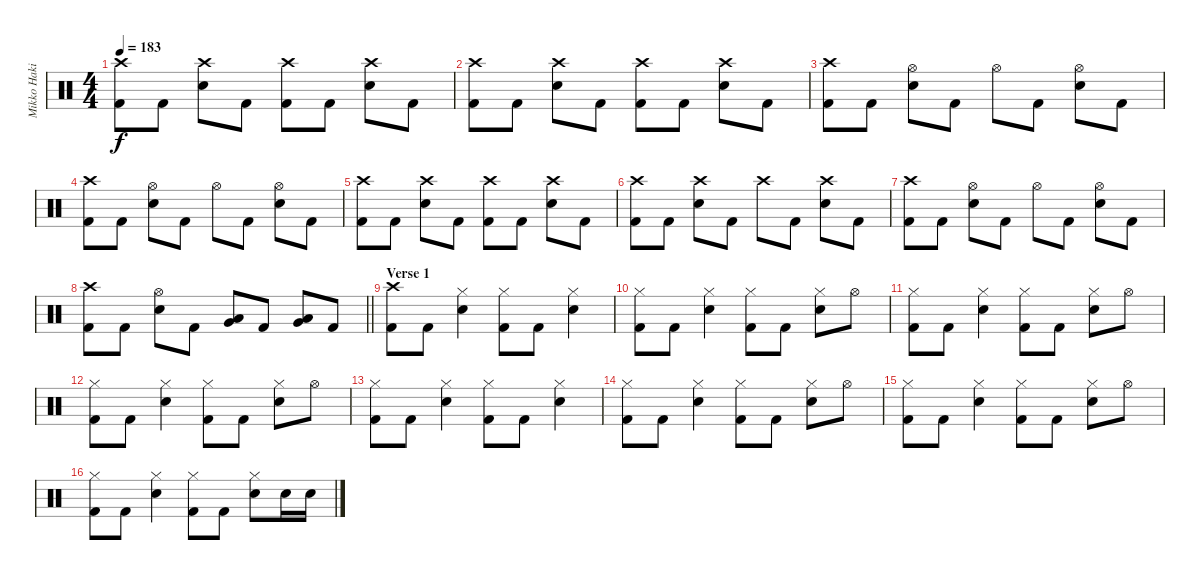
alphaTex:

\track ("Mikko Hakila - Drums" "Mikko Haki") {instrument percussion}
\staff {score}
\articulation defaults
\ts (4 4)
\tempo 183
\clef neutral
\ks c
("Crash high (hit)" "Kick (hit) 2").8{dy f} "Kick (hit) 2".8 ("Crash high (hit)" "Electric Snare (hit)").8 "Kick (hit) 2".8 ("Crash high (hit)" "Kick (hit) 2").8 "Kick (hit) 2".8 ("Crash high (hit)" "Electric Snare (hit)").8 "Kick (hit) 2".8 |
("Crash high (hit)" "Kick (hit) 2").8 "Kick (hit) 2".8 ("Crash high (hit)" "Electric Snare (hit)").8 "Kick (hit) 2".8 ("Crash high (hit)" "Kick (hit) 2").8 "Kick (hit) 2".8 ("Crash high (hit)" "Electric Snare (hit)").8 "Kick (hit) 2".8 |
("Crash high (hit)" "Kick (hit) 2").8 "Kick (hit) 2".8 ("Hi-Hat (open)" "Electric Snare (hit)").8 "Kick (hit) 2".8 "Hi-Hat (open)".8 "Kick (hit) 2".8 ("Hi-Hat (open)" "Electric Snare (hit)").8 "Kick (hit) 2".8 |
("Crash high (hit)" "Kick (hit) 2").8 "Kick (hit) 2".8 ("Hi-Hat (open)" "Electric Snare (hit)").8 "Kick (hit) 2".8 "Hi-Hat (open)".8 "Kick (hit) 2".8 ("Hi-Hat (open)" "Electric Snare (hit)").8 "Kick (hit) 2".8 |
("Crash high (hit)" "Kick (hit) 2").8 "Kick (hit) 2".8 ("Crash high (hit)" "Electric Snare (hit)").8 "Kick (hit) 2".8 ("Crash high (hit)" "Kick (hit) 2").8 "Kick (hit) 2".8 ("Crash high (hit)" "Electric Snare (hit)").8 "Kick (hit) 2".8 |
("Crash high (hit)" "Kick (hit) 2").8 "Kick (hit) 2".8 ("Crash high (hit)" "Electric Snare (hit)").8 "Kick (hit) 2".8 "Crash high (hit)".8 "Kick (hit) 2".8 ("Crash high (hit)" "Electric Snare (hit)").8 "Kick (hit) 2".8 |
("Crash high (hit)" "Kick (hit) 2").8 "Kick (hit) 2".8 ("Hi-Hat (open)" "Electric Snare (hit)").8 "Kick (hit) 2".8 "Hi-Hat (open)".8 "Kick (hit) 2".8 ("Hi-Hat (open)" "Electric Snare (hit)").8 "Kick (hit) 2".8 |
\barLineRight lightlight
("Crash high (hit)" "Kick (hit) 2").8 "Kick (hit) 2".8 ("Hi-Hat (open)" "Electric Snare (hit)").8 "Kick (hit) 2".8 ("Low Tom (hit)" "Very Low Tom (hit)").8 "Kick (hit) 2".8 ("Low Tom (hit)" "Very Low Tom (hit)").8 "Kick (hit) 2".8 |
\section ("" "Verse 1")
("Crash high (hit)" "Kick (hit) 2").8 "Kick (hit) 2".8 ("Hi-Hat (closed)" "Electric Snare (hit)").4 ("Hi-Hat (closed)" "Kick (hit) 2").8 "Kick (hit) 2".8 ("Hi-Hat (closed)" "Electric Snare (hit)").4 |
("Hi-Hat (closed)" "Kick (hit) 2").8 "Kick (hit) 2".8 ("Hi-Hat (closed)" "Electric Snare (hit)").4 ("Hi-Hat (closed)" "Kick (hit) 2").8 "Kick (hit) 2".8 ("Hi-Hat (closed)" "Electric Snare (hit)").8 "Hi-Hat (open)".8 |
("Hi-Hat (closed)" "Kick (hit) 2").8 "Kick (hit) 2".8 ("Hi-Hat (closed)" "Electric Snare (hit)").4 ("Hi-Hat (closed)" "Kick (hit) 2").8 "Kick (hit) 2".8 ("Hi-Hat (closed)" "Electric Snare (hit)").8 "Hi-Hat (open)".8 |
("Hi-Hat (closed)" "Kick (hit) 2").8 "Kick (hit) 2".8 ("Hi-Hat (closed)" "Electric Snare (hit)").4 ("Hi-Hat (closed)" "Kick (hit) 2").8 "Kick (hit) 2".8 ("Hi-Hat (closed)" "Electric Snare (hit)").8 "Hi-Hat (open)".8 |
("Hi-Hat (closed)" "Kick (hit) 2").8 "Kick (hit) 2".8 ("Hi-Hat (closed)" "Electric Snare (hit)").4 ("Hi-Hat (closed)" "Kick (hit) 2").8 "Kick (hit) 2".8 ("Hi-Hat (closed)" "Electric Snare (hit)").4 |
("Hi-Hat (closed)" "Kick (hit) 2").8 "Kick (hit) 2".8 ("Hi-Hat (closed)" "Electric Snare (hit)").4 ("Hi-Hat (closed)" "Kick (hit) 2").8 "Kick (hit) 2".8 ("Hi-Hat (closed)" "Electric Snare (hit)").8 "Hi-Hat (open)".8 |
("Hi-Hat (closed)" "Kick (hit) 2").8 "Kick (hit) 2".8 ("Hi-Hat (closed)" "Electric Snare (hit)").4 ("Hi-Hat (closed)" "Kick (hit) 2").8 "Kick (hit) 2".8 ("Hi-Hat (closed)" "Electric Snare (hit)").8 "Hi-Hat (open)".8 |
("Hi-Hat (closed)" "Kick (hit) 2").8 "Kick (hit) 2".8 ("Hi-Hat (closed)" "Electric Snare (hit)").4 ("Hi-Hat (closed)" "Kick (hit) 2").8 "Kick (hit) 2".8 ("Hi-Hat (closed)" "Electric Snare (hit)").8 "Electric Snare (hit)".16 "Electric Snare (hit)".16
